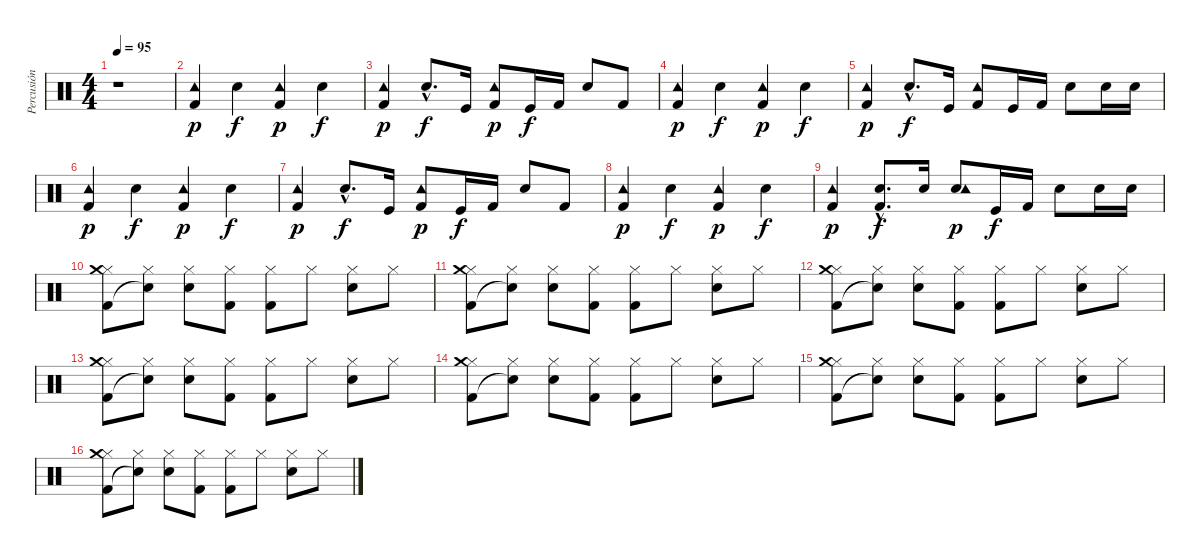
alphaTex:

\track ("Percusión" "Percusión") {instrument percussion}
\staff {score}
\articulation defaults
\ts (4 4)
\tempo 95
\clef neutral
\ks c
r.1{dy p} |
("Kick (hit) 2" "Tambourine (hit)").4 "Snare (hit) 2".4{dy f} ("Kick (hit) 2" "Tambourine (hit)").4{dy p} "Snare (hit) 2".4{dy f} |
("Kick (hit) 2" "Tambourine (hit)").4{dy p} "Snare (hit) 2"{hac}.8{d dy f} "Kick (hit)".16{balance 10} ("Kick (hit) 2" "Tambourine (hit)").8{dy p balance 8} "Kick (hit)".16{dy f balance 6} "Kick (hit) 2".16{balance 10} "Snare (hit) 2".8{balance 8} "Kick (hit) 2".8 |
("Kick (hit) 2" "Tambourine (hit)").4{dy p} "Snare (hit) 2".4{dy f} ("Kick (hit) 2" "Tambourine (hit)").4{dy p} "Snare (hit) 2".4{dy f} |
("Kick (hit) 2" "Tambourine (hit)").4{dy p} "Snare (hit) 2"{hac}.8{d dy f} "Kick (hit)".16{balance 10} ("Kick (hit) 2" "Tambourine (hit)").8{balance 8} "Kick (hit)".16{balance 6} "Kick (hit) 2".16{balance 10} "Snare (hit) 2".8{balance 8} "Snare (hit) 2".16 "Snare (hit) 2".16 |
("Kick (hit) 2" "Tambourine (hit)").4{dy p} "Snare (hit) 2".4{dy f} ("Kick (hit) 2" "Tambourine (hit)").4{dy p} "Snare (hit) 2".4{dy f} |
("Kick (hit) 2" "Tambourine (hit)").4{dy p} "Snare (hit) 2"{hac}.8{d dy f} "Kick (hit)".16{balance 10} ("Kick (hit) 2" "Tambourine (hit)").8{dy p balance 8} "Kick (hit)".16{dy f balance 6} "Kick (hit) 2".16{balance 10} "Snare (hit) 2".8{balance 8} "Kick (hit) 2".8 |
("Kick (hit) 2" "Tambourine (hit)").4{dy p} "Snare (hit) 2".4{dy f} ("Kick (hit) 2" "Tambourine (hit)").4{dy p} "Snare (hit) 2".4{dy f} |
("Kick (hit) 2" "Tambourine (hit)").4{dy p} ("Kick (hit) 2"{hac} "Snare (hit) 2"{hac}).8{d dy f} "Snare (hit) 2".16{balance 10} ("Snare (hit) 2" "Tambourine (hit)").8{dy p balance 8} "Kick (hit)".16{dy f balance 6} "Kick (hit) 2".16{balance 10} "Snare (hit) 2".8{balance 8} "Snare (hit) 2".16 "Snare (hit) 2".16 |
("Hi-Hat (closed)" "Kick (hit) 2" "Crash medium (hit)").8 ("Hi-Hat (closed)" "Snare (hit)"{t}).8 ("Hi-Hat (closed)" "Snare (hit) 2").8 ("Hi-Hat (closed)" "Kick (hit) 2").8 ("Hi-Hat (closed)" "Kick (hit) 2").8 "Hi-Hat (closed)".8 ("Hi-Hat (closed)" "Snare (hit) 2").8 "Hi-Hat (closed)".8 |
("Hi-Hat (closed)" "Kick (hit) 2" "Crash medium (hit)").8 ("Hi-Hat (closed)" "Snare (hit)"{t}).8 ("Hi-Hat (closed)" "Snare (hit) 2").8 ("Hi-Hat (closed)" "Kick (hit) 2").8 ("Hi-Hat (closed)" "Kick (hit) 2").8 "Hi-Hat (closed)".8 ("Hi-Hat (closed)" "Snare (hit) 2").8 "Hi-Hat (closed)".8 |
("Hi-Hat (closed)" "Kick (hit) 2" "Crash medium (hit)").8 ("Hi-Hat (closed)" "Snare (hit)"{t}).8 ("Hi-Hat (closed)" "Snare (hit) 2").8 ("Hi-Hat (closed)" "Kick (hit) 2").8 ("Hi-Hat (closed)" "Kick (hit) 2").8 "Hi-Hat (closed)".8 ("Hi-Hat (closed)" "Snare (hit) 2").8 "Hi-Hat (closed)".8 |
("Hi-Hat (closed)" "Kick (hit) 2" "Crash medium (hit)").8 ("Hi-Hat (closed)" "Snare (hit)"{t}).8 ("Hi-Hat (closed)" "Snare (hit) 2").8 ("Hi-Hat (closed)" "Kick (hit) 2").8 ("Hi-Hat (closed)" "Kick (hit) 2").8 "Hi-Hat (closed)".8 ("Hi-Hat (closed)" "Snare (hit) 2").8 "Hi-Hat (closed)".8 |
("Hi-Hat (closed)" "Kick (hit) 2" "Crash medium (hit)").8 ("Hi-Hat (closed)" "Snare (hit)"{t}).8 ("Hi-Hat (closed)" "Snare (hit) 2").8 ("Hi-Hat (closed)" "Kick (hit) 2").8 ("Hi-Hat (closed)" "Kick (hit) 2").8 "Hi-Hat (closed)".8 ("Hi-Hat (closed)" "Snare (hit) 2").8 "Hi-Hat (closed)".8 |
("Hi-Hat (closed)" "Kick (hit) 2" "Crash medium (hit)").8 ("Hi-Hat (closed)" "Snare (hit)"{t}).8 ("Hi-Hat (closed)" "Snare (hit) 2").8 ("Hi-Hat (closed)" "Kick (hit) 2").8 ("Hi-Hat (closed)" "Kick (hit) 2").8 "Hi-Hat (closed)".8 ("Hi-Hat (closed)" "Snare (hit) 2").8 "Hi-Hat (closed)".8 |
("Hi-Hat (closed)" "Kick (hit) 2" "Crash medium (hit)").8 ("Hi-Hat (closed)" "Snare (hit)"{t}).8 ("Hi-Hat (closed)" "Snare (hit) 2").8 ("Hi-Hat (closed)" "Kick (hit) 2").8 ("Hi-Hat (closed)" "Kick (hit) 2").8 "Hi-Hat (closed)".8 ("Hi-Hat (closed)" "Snare (hit) 2").8 "Hi-Hat (closed)".8
